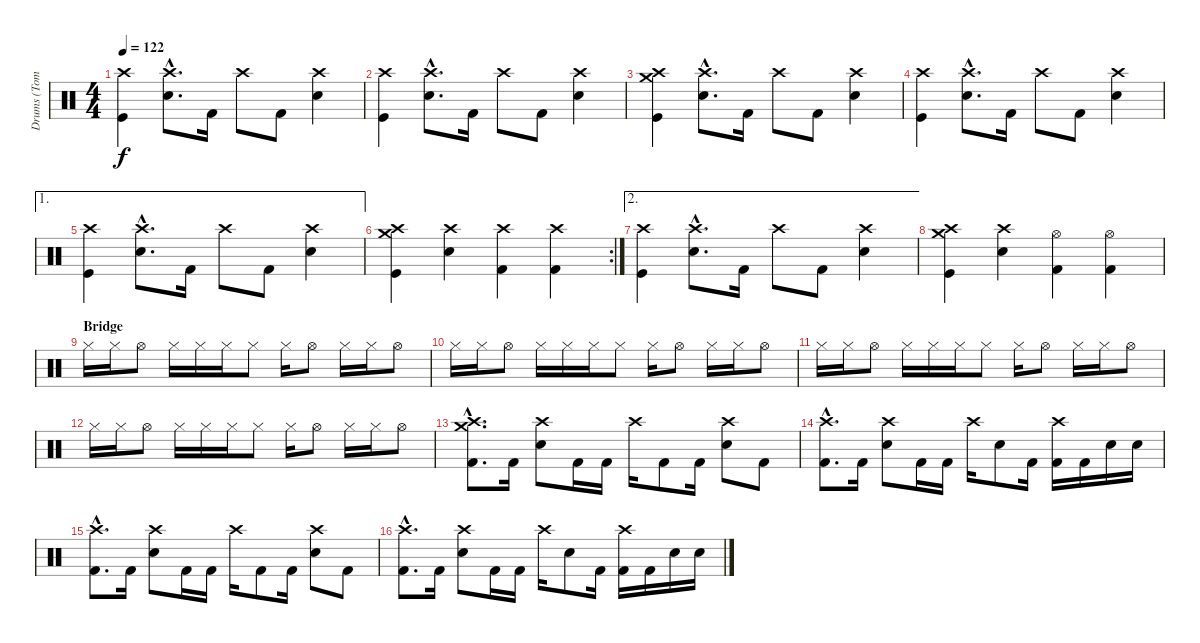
\track ("Drums (Tommy Decker)" "Drums (Tom") {instrument percussion}
\staff {score}
\articulation defaults
\ts (4 4)
\tempo 122
\clef neutral
\ks c
("Crash high (hit)" "Kick (hit)").4{dy f} ("Crash high (hit)"{hac} "Snare (hit) 2"{hac}).8{d} "Kick (hit) 2".16 "Crash high (hit)".8 "Kick (hit) 2".8 ("Crash high (hit)" "Snare (hit) 2").4 |
("Crash high (hit)" "Kick (hit)").4 ("Crash high (hit)"{hac} "Snare (hit) 2"{hac}).8{d} "Kick (hit) 2".16 "Crash high (hit)".8 "Kick (hit) 2".8 ("Crash high (hit)" "Snare (hit) 2").4 |
("Crash high (hit)" "Crash medium (hit)" "Kick (hit)").4 ("Crash high (hit)"{hac} "Snare (hit) 2"{hac}).8{d} "Kick (hit) 2".16 "Crash high (hit)".8 "Kick (hit) 2".8 ("Crash high (hit)" "Snare (hit) 2").4 |
("Crash high (hit)" "Kick (hit)").4 ("Crash high (hit)"{hac} "Snare (hit) 2"{hac}).8{d} "Kick (hit) 2".16 "Crash high (hit)".8 "Kick (hit) 2".8 ("Crash high (hit)" "Snare (hit) 2").4 |
\ae 1
("Crash high (hit)" "Kick (hit)").4 ("Crash high (hit)"{hac} "Snare (hit) 2"{hac}).8{d} "Kick (hit) 2".16 "Crash high (hit)".8 "Kick (hit) 2".8 ("Crash high (hit)" "Snare (hit) 2").4 |
\rc 2
("Crash high (hit)" "Crash medium (hit)" "Kick (hit)").4 ("Crash high (hit)" "Snare (hit) 2").4 ("Crash high (hit)" "Kick (hit) 2").4 ("Crash high (hit)" "Kick (hit) 2").4 |
\ae 2
("Crash high (hit)" "Kick (hit)").4 ("Crash high (hit)"{hac} "Snare (hit) 2"{hac}).8{d} "Kick (hit) 2".16 "Crash high (hit)".8 "Kick (hit) 2".8 ("Crash high (hit)" "Snare (hit) 2").4 |
("Crash high (hit)" "Crash medium (hit)" "Kick (hit)").4 ("Crash high (hit)" "Snare (hit) 2").4 ("Hi-Hat (open)" "Kick (hit) 2").4 ("Hi-Hat (open)" "Kick (hit) 2").4 |
\section ("" "Bridge")
"Hi-Hat (closed)".16 "Hi-Hat (closed)".16 "Hi-Hat (open)".8 "Hi-Hat (closed)".16 "Hi-Hat (closed)".16 "Hi-Hat (closed)".16 "Hi-Hat (closed)".8 "Hi-Hat (closed)".16 "Hi-Hat (open)".8 "Hi-Hat (closed)".16 "Hi-Hat (closed)".16 "Hi-Hat (open)".8 |
"Hi-Hat (closed)".16 "Hi-Hat (closed)".16 "Hi-Hat (open)".8 "Hi-Hat (closed)".16 "Hi-Hat (closed)".16 "Hi-Hat (closed)".16 "Hi-Hat (closed)".8 "Hi-Hat (closed)".16 "Hi-Hat (open)".8 "Hi-Hat (closed)".16 "Hi-Hat (closed)".16 "Hi-Hat (open)".8 |
"Hi-Hat (closed)".16 "Hi-Hat (closed)".16 "Hi-Hat (open)".8 "Hi-Hat (closed)".16 "Hi-Hat (closed)".16 "Hi-Hat (closed)".16 "Hi-Hat (closed)".8 "Hi-Hat (closed)".16 "Hi-Hat (open)".8 "Hi-Hat (closed)".16 "Hi-Hat (closed)".16 "Hi-Hat (open)".8 |
"Hi-Hat (closed)".16 "Hi-Hat (closed)".16 "Hi-Hat (open)".8 "Hi-Hat (closed)".16 "Hi-Hat (closed)".16 "Hi-Hat (closed)".16 "Hi-Hat (closed)".8 "Hi-Hat (closed)".16 "Hi-Hat (open)".8 "Hi-Hat (closed)".16 "Hi-Hat (closed)".16 "Hi-Hat (open)".8 |
("Crash high (hit)"{hac} "Crash medium (hit)"{hac} "Kick (hit) 2"{hac}).8{d} "Kick (hit) 2".16 ("Crash high (hit)" "Snare (hit) 2").8 "Kick (hit) 2".16 "Kick (hit) 2".16 "Crash high (hit)".16 "Kick (hit) 2".8 "Kick (hit) 2".16 ("Crash high (hit)" "Snare (hit) 2").8 "Kick (hit) 2".8 |
("Crash high (hit)"{hac} "Kick (hit) 2"{hac}).8{d} "Kick (hit) 2".16 ("Crash high (hit)" "Snare (hit) 2").8 "Kick (hit) 2".16 "Kick (hit) 2".16 "Crash high (hit)".16 "Snare (hit) 2".8 "Kick (hit) 2".16 ("Crash high (hit)" "Kick (hit) 2").16 "Kick (hit) 2".16 "Snare (hit) 2".16 "Snare (hit) 2".16 |
("Crash high (hit)"{hac} "Kick (hit) 2"{hac}).8{d} "Kick (hit) 2".16 ("Crash high (hit)" "Snare (hit) 2").8 "Kick (hit) 2".16 "Kick (hit) 2".16 "Crash high (hit)".16 "Kick (hit) 2".8 "Kick (hit) 2".16 ("Crash high (hit)" "Snare (hit) 2").8 "Kick (hit) 2".8 |
("Crash high (hit)"{hac} "Kick (hit) 2"{hac}).8{d} "Kick (hit) 2".16 ("Crash high (hit)" "Snare (hit) 2").8 "Kick (hit) 2".16 "Kick (hit) 2".16 "Crash high (hit)".16 "Snare (hit) 2".8 "Kick (hit) 2".16 ("Crash high (hit)" "Kick (hit) 2").16 "Kick (hit) 2".16 "Snare (hit) 2".16 "Snare (hit) 2".16
